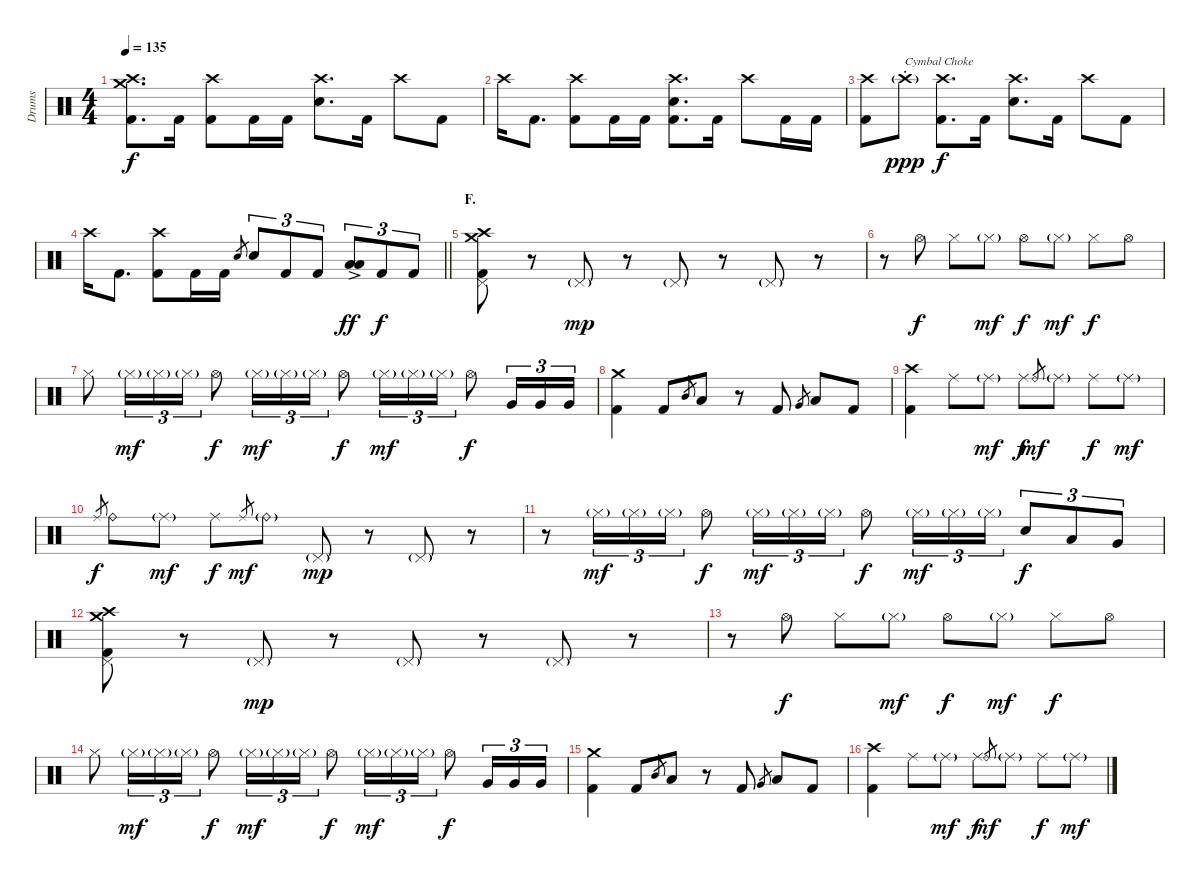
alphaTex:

\track ("Drums" "Drums") {instrument percussion}
\staff {score}
\articulation defaults
\ts (4 4)
\tempo 135
\clef neutral
\ks c
("Crash medium (hit)" "Crash high (hit)" "Kick (hit) 2").8{d dy f} "Kick (hit) 2".16 ("Crash high (hit)" "Kick (hit) 2").8 "Kick (hit) 2".16 "Kick (hit) 2".16 ("Crash high (hit)" "Electric Snare (hit)").8{d} "Kick (hit) 2".16 "Crash high (hit)".8 "Kick (hit) 2".8 |
"Crash high (hit)".16 "Kick (hit) 2".8{d} ("Crash high (hit)" "Kick (hit) 2").8 "Kick (hit) 2".16 "Kick (hit) 2".16 ("Crash high (hit)" "Electric Snare (hit)" "Kick (hit) 2").8{d} "Kick (hit) 2".16 "Crash high (hit)".8 "Kick (hit) 2".16 "Kick (hit) 2".16 |
("Crash high (hit)" "Kick (hit) 2").8 "Crash high (hit)"{g st}.8{txt "Cymbal Choke" dy ppp} ("Crash high (hit)" "Kick (hit) 2").8{d dy f} "Kick (hit) 2".16 ("Crash high (hit)" "Electric Snare (hit)").8{d} "Kick (hit) 2".16 "Crash high (hit)".8 "Kick (hit) 2".8 |
\barLineRight lightlight "Crash high (hit)".16 "Kick (hit) 2".8{d}
("Crash high (hit)" "Kick (hit) 2").8 "Kick (hit) 2".16 "Kick (hit) 2".16 "Electric Snare (hit)".8{gr} "Electric Snare (hit)".8{tu (3 2)} "Kick (hit) 2".8{tu (3 2)} "Kick (hit) 2".8{tu (3 2)} ("Low Tom (hit)" "Low Floor Tom (hit)"{ac}).8{tu (3 2) bu 120 dy ff} "Kick (hit) 2".8{tu (3 2) dy f} "Kick (hit) 2".8{tu (3 2)} |
\section ("" "F.")
("Crash medium (hit)" "Crash high (hit)" "Pedal Hi-Hat (hit)" "Kick (hit) 2").8 r.8 "Pedal Hi-Hat (hit)"{g}.8{dy mp} r.8 "Pedal Hi-Hat (hit)"{g}.8 r.8 "Pedal Hi-Hat (hit)"{g}.8 r.8 |
r.8 "Hi-Hat (open)".8{dy f} "Hi-Hat (closed)".8 "Hi-Hat (closed)"{g}.8{dy mf} "Hi-Hat (open)".8{dy f} "Hi-Hat (closed)"{g}.8{dy mf} "Hi-Hat (closed)".8{dy f} "Hi-Hat (open)".8 |
"Hi-Hat (closed)".8 "Hi-Hat (closed)"{g}.16{tu (3 2) dy mf} "Hi-Hat (closed)"{g}.16{tu (3 2)} "Hi-Hat (closed)"{g}.16{tu (3 2)} "Hi-Hat (open)".8{dy f} "Hi-Hat (closed)"{g}.16{tu (3 2) dy mf} "Hi-Hat (closed)"{g}.16{tu (3 2)} "Hi-Hat (closed)"{g}.16{tu (3 2)} "Hi-Hat (open)".8{dy f} "Hi-Hat (closed)"{g}.16{tu (3 2) dy mf} "Hi-Hat (closed)"{g}.16{tu (3 2)} "Hi-Hat (closed)"{g}.16{tu (3 2)} "Hi-Hat (open)".8{dy f} "Very Low Tom (hit)".16{tu (3 2)} "Very Low Tom (hit)".16{tu (3 2)} "Very Low Tom (hit)".16{tu (3 2)} |
("Crash medium (hit)" "Kick (hit) 2").4 "Kick (hit) 2".8 "Mid Tom (hit)".8{gr} "Low Tom (hit)".8 r.8 "Kick (hit) 2".8 "Very Low Tom (hit)".8{gr} "Low Floor Tom (hit)".8 "Kick (hit) 2".8 |
("Crash high (hit)" "Kick (hit) 2").4 "Ride (middle)".8 "Ride (middle)"{g}.8{dy mf} "Ride (middle)".8{dy f} "Ride (bell)".8{gr dy mf} "Ride (middle)"{g}.8 "Ride (middle)".8{dy f} "Ride (middle)"{g}.8{dy mf} |
"Ride (middle)".8{gr dy f} "Ride (bell)".8 "Ride (middle)"{g}.8{dy mf} "Ride (middle)".8{dy f} "Ride (middle)".8{gr dy mf} "Ride (bell)"{g}.8 "Pedal Hi-Hat (hit)"{g}.8{dy mp} r.8 "Pedal Hi-Hat (hit)"{g}.8 r.8 |
r.8 "Hi-Hat (closed)"{g}.16{tu (3 2) dy mf} "Hi-Hat (closed)"{g}.16{tu (3 2)} "Hi-Hat (closed)"{g}.16{tu (3 2)} "Hi-Hat (open)".8{dy f} "Hi-Hat (closed)"{g}.16{tu (3 2) dy mf} "Hi-Hat (closed)"{g}.16{tu (3 2)} "Hi-Hat (closed)"{g}.16{tu (3 2)} "Hi-Hat (open)".8{dy f} "Hi-Hat (closed)"{g}.16{tu (3 2) dy mf} "Hi-Hat (closed)"{g}.16{tu (3 2)} "Hi-Hat (closed)"{g}.16{tu (3 2)} "Electric Snare (hit)".8{tu (3 2) dy f} "Low Tom (hit)".8{tu (3 2)} "Very Low Tom (hit)".8{tu (3 2)} |
("Crash medium (hit)" "Crash high (hit)" "Pedal Hi-Hat (hit)" "Kick (hit) 2").8 r.8 "Pedal Hi-Hat (hit)"{g}.8{dy mp} r.8 "Pedal Hi-Hat (hit)"{g}.8 r.8 "Pedal Hi-Hat (hit)"{g}.8 r.8 |
r.8 "Hi-Hat (open)".8{dy f} "Hi-Hat (closed)".8 "Hi-Hat (closed)"{g}.8{dy mf} "Hi-Hat (open)".8{dy f} "Hi-Hat (closed)"{g}.8{dy mf} "Hi-Hat (closed)".8{dy f} "Hi-Hat (open)".8 |
"Hi-Hat (closed)".8 "Hi-Hat (closed)"{g}.16{tu (3 2) dy mf} "Hi-Hat (closed)"{g}.16{tu (3 2)} "Hi-Hat (closed)"{g}.16{tu (3 2)} "Hi-Hat (open)".8{dy f} "Hi-Hat (closed)"{g}.16{tu (3 2) dy mf} "Hi-Hat (closed)"{g}.16{tu (3 2)} "Hi-Hat (closed)"{g}.16{tu (3 2)} "Hi-Hat (open)".8{dy f} "Hi-Hat (closed)"{g}.16{tu (3 2) dy mf} "Hi-Hat (closed)"{g}.16{tu (3 2)} "Hi-Hat (closed)"{g}.16{tu (3 2)} "Hi-Hat (open)".8{dy f} "Very Low Tom (hit)".16{tu (3 2)} "Very Low Tom (hit)".16{tu (3 2)} "Very Low Tom (hit)".16{tu (3 2)} |
("Crash medium (hit)" "Kick (hit) 2").4 "Kick (hit) 2".8 "Mid Tom (hit)".8{gr} "Low Tom (hit)".8 r.8 "Kick (hit) 2".8 "Very Low Tom (hit)".8{gr} "Low Floor Tom (hit)".8 "Kick (hit) 2".8 |
("Crash high (hit)" "Kick (hit) 2").4 "Ride (middle)".8 "Ride (middle)"{g}.8{dy mf} "Ride (middle)".8{dy f} "Ride (bell)".8{gr dy mf} "Ride (middle)"{g}.8 "Ride (middle)".8{dy f} "Ride (middle)"{g}.8{dy mf}
